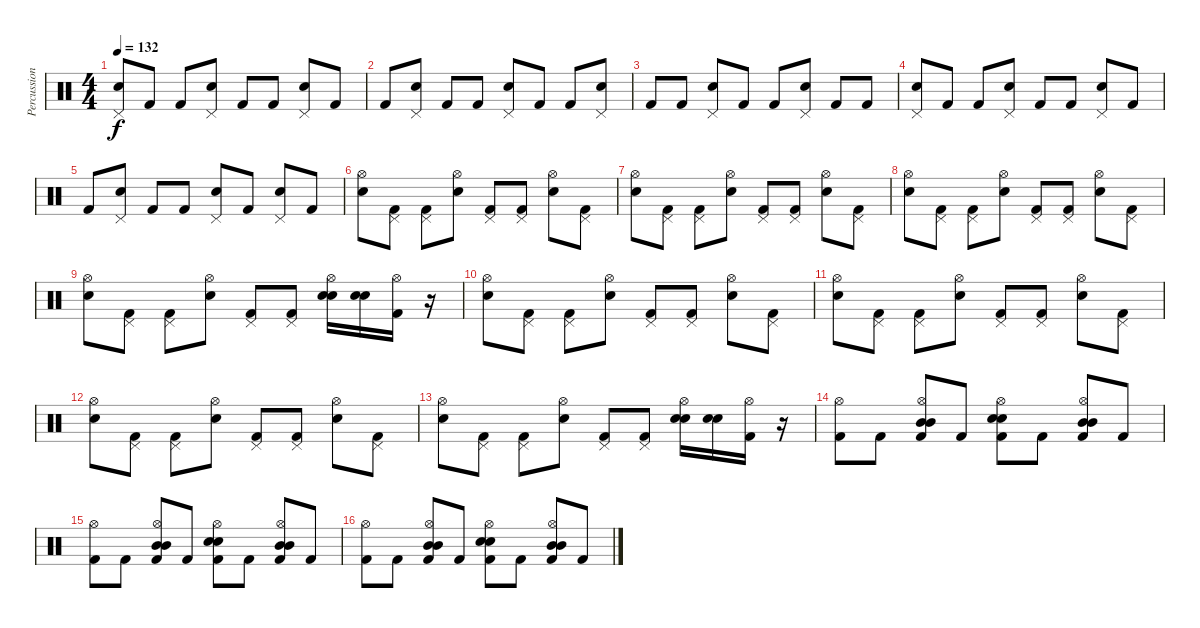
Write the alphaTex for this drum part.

\track ("Percussion" "Percussion") {instrument percussion}
\staff {score}
\articulation defaults
\ts (4 4)
\tempo 132
\clef neutral
\ks c
("Pedal Hi-Hat (hit)" "Snare (hit) 2").8{dy f} "Kick (hit) 2".8 "Kick (hit) 2".8 ("Pedal Hi-Hat (hit)" "Snare (hit) 2").8 "Kick (hit) 2".8 "Kick (hit) 2".8 ("Pedal Hi-Hat (hit)" "Snare (hit) 2").8 "Kick (hit) 2".8 |
"Kick (hit) 2".8 ("Pedal Hi-Hat (hit)" "Snare (hit) 2").8 "Kick (hit) 2".8 "Kick (hit) 2".8 ("Pedal Hi-Hat (hit)" "Snare (hit) 2").8 "Kick (hit) 2".8 "Kick (hit) 2".8 ("Pedal Hi-Hat (hit)" "Snare (hit) 2").8 |
"Kick (hit) 2".8 "Kick (hit) 2".8 ("Pedal Hi-Hat (hit)" "Snare (hit) 2").8 "Kick (hit) 2".8 "Kick (hit) 2".8 ("Pedal Hi-Hat (hit)" "Snare (hit) 2").8 "Kick (hit) 2".8 "Kick (hit) 2".8 |
("Pedal Hi-Hat (hit)" "Snare (hit) 2").8 "Kick (hit) 2".8 "Kick (hit) 2".8 ("Pedal Hi-Hat (hit)" "Snare (hit) 2").8 "Kick (hit) 2".8 "Kick (hit) 2".8 ("Pedal Hi-Hat (hit)" "Snare (hit) 2").8 "Kick (hit) 2".8 |
"Kick (hit) 2".8 ("Pedal Hi-Hat (hit)" "Snare (hit) 2").8 "Kick (hit) 2".8 "Kick (hit) 2".8 ("Pedal Hi-Hat (hit)" "Snare (hit) 2").8 "Kick (hit) 2".8 ("Pedal Hi-Hat (hit)" "Snare (hit) 2").8 "Kick (hit) 2".8 |
("Hi-Hat (open)" "Snare (hit) 2").8 ("Pedal Hi-Hat (hit)" "Kick (hit) 2").8 ("Pedal Hi-Hat (hit)" "Kick (hit) 2").8 ("Hi-Hat (open)" "Snare (hit) 2").8 ("Pedal Hi-Hat (hit)" "Kick (hit) 2").8 ("Pedal Hi-Hat (hit)" "Kick (hit) 2").8 ("Hi-Hat (open)" "Snare (hit) 2").8 ("Pedal Hi-Hat (hit)" "Kick (hit) 2").8 |
("Hi-Hat (open)" "Snare (hit) 2").8 ("Pedal Hi-Hat (hit)" "Kick (hit) 2").8 ("Pedal Hi-Hat (hit)" "Kick (hit) 2").8 ("Hi-Hat (open)" "Snare (hit) 2").8 ("Pedal Hi-Hat (hit)" "Kick (hit) 2").8 ("Pedal Hi-Hat (hit)" "Kick (hit) 2").8 ("Hi-Hat (open)" "Snare (hit) 2").8 ("Pedal Hi-Hat (hit)" "Kick (hit) 2").8 |
("Hi-Hat (open)" "Snare (hit) 2").8 ("Pedal Hi-Hat (hit)" "Kick (hit) 2").8 ("Pedal Hi-Hat (hit)" "Kick (hit) 2").8 ("Hi-Hat (open)" "Snare (hit) 2").8 ("Pedal Hi-Hat (hit)" "Kick (hit) 2").8 ("Pedal Hi-Hat (hit)" "Kick (hit) 2").8 ("Hi-Hat (open)" "Snare (hit) 2").8 ("Pedal Hi-Hat (hit)" "Kick (hit) 2").8 |
("Hi-Hat (open)" "Snare (hit) 2").8 ("Pedal Hi-Hat (hit)" "Kick (hit) 2").8 ("Pedal Hi-Hat (hit)" "Kick (hit) 2").8 ("Hi-Hat (open)" "Snare (hit) 2").8 ("Pedal Hi-Hat (hit)" "Kick (hit) 2").8 ("Pedal Hi-Hat (hit)" "Kick (hit) 2").8 ("Hi-Hat (open)" "Snare (hit) 2" "Snare (hit) 2").16{bd 120} ("Snare (hit) 2" "Snare (hit) 2").16{bd 120} ("Hi-Hat (open)" "Kick (hit) 2").16 r.16 |
("Hi-Hat (open)" "Snare (hit) 2").8 ("Pedal Hi-Hat (hit)" "Kick (hit) 2").8 ("Pedal Hi-Hat (hit)" "Kick (hit) 2").8 ("Hi-Hat (open)" "Snare (hit) 2").8 ("Pedal Hi-Hat (hit)" "Kick (hit) 2").8 ("Pedal Hi-Hat (hit)" "Kick (hit) 2").8 ("Hi-Hat (open)" "Snare (hit) 2").8 ("Pedal Hi-Hat (hit)" "Kick (hit) 2").8 |
("Hi-Hat (open)" "Snare (hit) 2").8 ("Pedal Hi-Hat (hit)" "Kick (hit) 2").8 ("Pedal Hi-Hat (hit)" "Kick (hit) 2").8 ("Hi-Hat (open)" "Snare (hit) 2").8 ("Pedal Hi-Hat (hit)" "Kick (hit) 2").8 ("Pedal Hi-Hat (hit)" "Kick (hit) 2").8 ("Hi-Hat (open)" "Snare (hit) 2").8 ("Pedal Hi-Hat (hit)" "Kick (hit) 2").8 |
("Hi-Hat (open)" "Snare (hit) 2").8 ("Pedal Hi-Hat (hit)" "Kick (hit) 2").8 ("Pedal Hi-Hat (hit)" "Kick (hit) 2").8 ("Hi-Hat (open)" "Snare (hit) 2").8 ("Pedal Hi-Hat (hit)" "Kick (hit) 2").8 ("Pedal Hi-Hat (hit)" "Kick (hit) 2").8 ("Hi-Hat (open)" "Snare (hit) 2").8 ("Pedal Hi-Hat (hit)" "Kick (hit) 2").8 |
("Hi-Hat (open)" "Snare (hit) 2").8 ("Pedal Hi-Hat (hit)" "Kick (hit) 2").8 ("Pedal Hi-Hat (hit)" "Kick (hit) 2").8 ("Hi-Hat (open)" "Snare (hit) 2").8 ("Pedal Hi-Hat (hit)" "Kick (hit) 2").8 ("Pedal Hi-Hat (hit)" "Kick (hit) 2").8 ("Hi-Hat (open)" "Snare (hit) 2" "Snare (hit) 2").16{bd 120} ("Snare (hit) 2" "Snare (hit) 2").16{bd 120} ("Hi-Hat (open)" "Kick (hit) 2").16 r.16 |
("Hi-Hat (open)" "Kick (hit) 2").8 "Kick (hit) 2".8 ("Hi-Hat (open)" "Mid Tom (hit)" "Mid Tom (hit)" "Kick (hit) 2").8 "Kick (hit) 2".8 ("Hi-Hat (open)" "Snare (hit) 2" "Snare (hit) 2" "Kick (hit) 2").8 "Kick (hit) 2".8 ("Hi-Hat (open)" "Mid Tom (hit)" "Mid Tom (hit)" "Kick (hit) 2").8 "Kick (hit) 2".8 |
("Hi-Hat (open)" "Kick (hit) 2").8 "Kick (hit) 2".8 ("Hi-Hat (open)" "Mid Tom (hit)" "Mid Tom (hit)" "Kick (hit) 2").8 "Kick (hit) 2".8 ("Hi-Hat (open)" "Snare (hit) 2" "Snare (hit) 2" "Kick (hit) 2").8 "Kick (hit) 2".8 ("Hi-Hat (open)" "Mid Tom (hit)" "Mid Tom (hit)" "Kick (hit) 2").8 "Kick (hit) 2".8 |
("Hi-Hat (open)" "Kick (hit) 2").8 "Kick (hit) 2".8 ("Hi-Hat (open)" "Mid Tom (hit)" "Mid Tom (hit)" "Kick (hit) 2").8 "Kick (hit) 2".8 ("Hi-Hat (open)" "Snare (hit) 2" "Snare (hit) 2" "Kick (hit) 2").8 "Kick (hit) 2".8 ("Hi-Hat (open)" "Mid Tom (hit)" "Mid Tom (hit)" "Kick (hit) 2").8 "Kick (hit) 2".8
